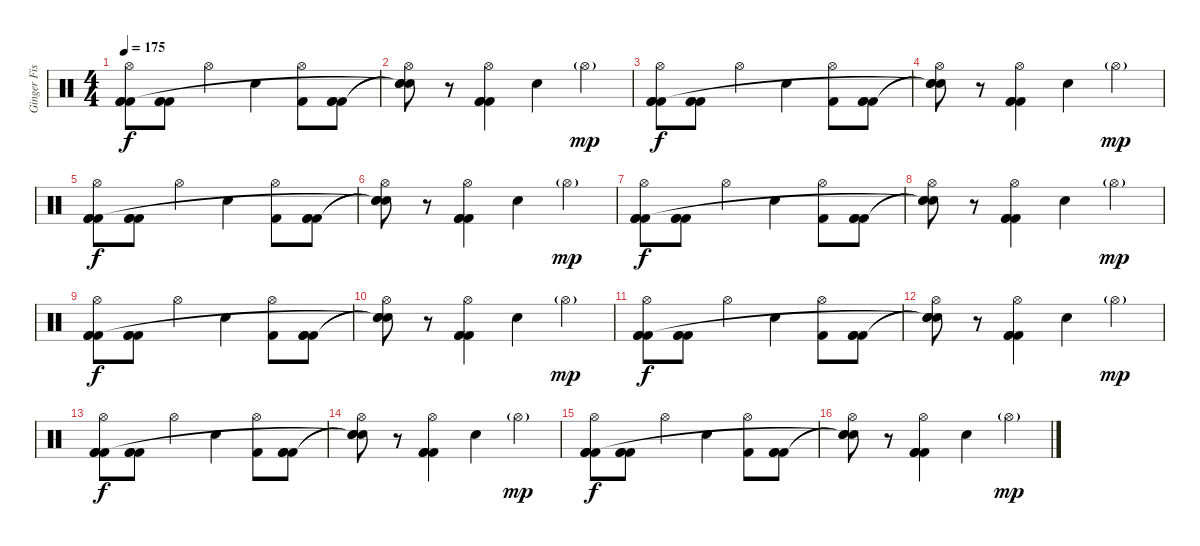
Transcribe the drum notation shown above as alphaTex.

\track ("Ginger Fish" "Ginger Fis") {instrument percussion}
\staff {score}
\articulation defaults
\ts (4 4)
\tempo 175
\clef neutral
\ks c
("Hi-Hat (open)" "Kick (hit) 2" "Kick (hit) 2" "Kick (hit) 2").8{dy f} ("Kick (hit) 2" "Kick (hit) 2" "Kick (hit) 2").8 "Hi-Hat (open)".4 "Snare (hit) 2".4 ("Hi-Hat (open)" "Kick (hit) 2").8 ("Kick (hit) 2" "Kick (hit) 2" "Kick (hit) 2").8 |
("Hi-Hat (open)" "Snare (hit)"{t} "Snare (hit)"{t} "Snare (hit)"{t}).8 r.8 ("Hi-Hat (open)" "Kick (hit) 2" "Kick (hit) 2" "Kick (hit) 2").4 "Snare (hit) 2".4 "Hi-Hat (open)"{g}.4{dy mp} |
("Hi-Hat (open)" "Kick (hit) 2" "Kick (hit) 2" "Kick (hit) 2").8{dy f} ("Kick (hit) 2" "Kick (hit) 2" "Kick (hit) 2").8 "Hi-Hat (open)".4 "Snare (hit) 2".4 ("Hi-Hat (open)" "Kick (hit) 2").8 ("Kick (hit) 2" "Kick (hit) 2" "Kick (hit) 2").8 |
("Hi-Hat (open)" "Snare (hit)"{t} "Snare (hit)"{t} "Snare (hit)"{t}).8 r.8 ("Hi-Hat (open)" "Kick (hit) 2" "Kick (hit) 2" "Kick (hit) 2").4 "Snare (hit) 2".4 "Hi-Hat (open)"{g}.4{dy mp} |
("Hi-Hat (open)" "Kick (hit) 2" "Kick (hit) 2" "Kick (hit) 2").8{dy f} ("Kick (hit) 2" "Kick (hit) 2" "Kick (hit) 2").8 "Hi-Hat (open)".4 "Snare (hit) 2".4 ("Hi-Hat (open)" "Kick (hit) 2").8 ("Kick (hit) 2" "Kick (hit) 2" "Kick (hit) 2").8 |
("Hi-Hat (open)" "Snare (hit)"{t} "Snare (hit)"{t} "Snare (hit)"{t}).8 r.8 ("Hi-Hat (open)" "Kick (hit) 2" "Kick (hit) 2" "Kick (hit) 2").4 "Snare (hit) 2".4 "Hi-Hat (open)"{g}.4{dy mp} |
("Hi-Hat (open)" "Kick (hit) 2" "Kick (hit) 2" "Kick (hit) 2").8{dy f} ("Kick (hit) 2" "Kick (hit) 2" "Kick (hit) 2").8 "Hi-Hat (open)".4 "Snare (hit) 2".4 ("Hi-Hat (open)" "Kick (hit) 2").8 ("Kick (hit) 2" "Kick (hit) 2" "Kick (hit) 2").8 |
("Hi-Hat (open)" "Snare (hit)"{t} "Snare (hit)"{t} "Snare (hit)"{t}).8 r.8 ("Hi-Hat (open)" "Kick (hit) 2" "Kick (hit) 2" "Kick (hit) 2").4 "Snare (hit) 2".4 "Hi-Hat (open)"{g}.4{dy mp} |
("Hi-Hat (open)" "Kick (hit) 2" "Kick (hit) 2" "Kick (hit) 2").8{dy f} ("Kick (hit) 2" "Kick (hit) 2" "Kick (hit) 2").8 "Hi-Hat (open)".4 "Snare (hit) 2".4 ("Hi-Hat (open)" "Kick (hit) 2").8 ("Kick (hit) 2" "Kick (hit) 2" "Kick (hit) 2").8 |
("Hi-Hat (open)" "Snare (hit)"{t} "Snare (hit)"{t} "Snare (hit)"{t}).8 r.8 ("Hi-Hat (open)" "Kick (hit) 2" "Kick (hit) 2" "Kick (hit) 2").4 "Snare (hit) 2".4 "Hi-Hat (open)"{g}.4{dy mp} |
("Hi-Hat (open)" "Kick (hit) 2" "Kick (hit) 2" "Kick (hit) 2").8{dy f} ("Kick (hit) 2" "Kick (hit) 2" "Kick (hit) 2").8 "Hi-Hat (open)".4 "Snare (hit) 2".4 ("Hi-Hat (open)" "Kick (hit) 2").8 ("Kick (hit) 2" "Kick (hit) 2" "Kick (hit) 2").8 |
("Hi-Hat (open)" "Snare (hit)"{t} "Snare (hit)"{t} "Snare (hit)"{t}).8 r.8 ("Hi-Hat (open)" "Kick (hit) 2" "Kick (hit) 2" "Kick (hit) 2").4 "Snare (hit) 2".4 "Hi-Hat (open)"{g}.4{dy mp} |
("Hi-Hat (open)" "Kick (hit) 2" "Kick (hit) 2" "Kick (hit) 2").8{dy f} ("Kick (hit) 2" "Kick (hit) 2" "Kick (hit) 2").8 "Hi-Hat (open)".4 "Snare (hit) 2".4 ("Hi-Hat (open)" "Kick (hit) 2").8 ("Kick (hit) 2" "Kick (hit) 2" "Kick (hit) 2").8 |
("Hi-Hat (open)" "Snare (hit)"{t} "Snare (hit)"{t} "Snare (hit)"{t}).8 r.8 ("Hi-Hat (open)" "Kick (hit) 2" "Kick (hit) 2" "Kick (hit) 2").4 "Snare (hit) 2".4 "Hi-Hat (open)"{g}.4{dy mp} |
("Hi-Hat (open)" "Kick (hit) 2" "Kick (hit) 2" "Kick (hit) 2").8{dy f} ("Kick (hit) 2" "Kick (hit) 2" "Kick (hit) 2").8 "Hi-Hat (open)".4 "Snare (hit) 2".4 ("Hi-Hat (open)" "Kick (hit) 2").8 ("Kick (hit) 2" "Kick (hit) 2" "Kick (hit) 2").8 |
("Hi-Hat (open)" "Snare (hit)"{t} "Snare (hit)"{t} "Snare (hit)"{t}).8 r.8 ("Hi-Hat (open)" "Kick (hit) 2" "Kick (hit) 2" "Kick (hit) 2").4 "Snare (hit) 2".4 "Hi-Hat (open)"{g}.4{dy mp}
